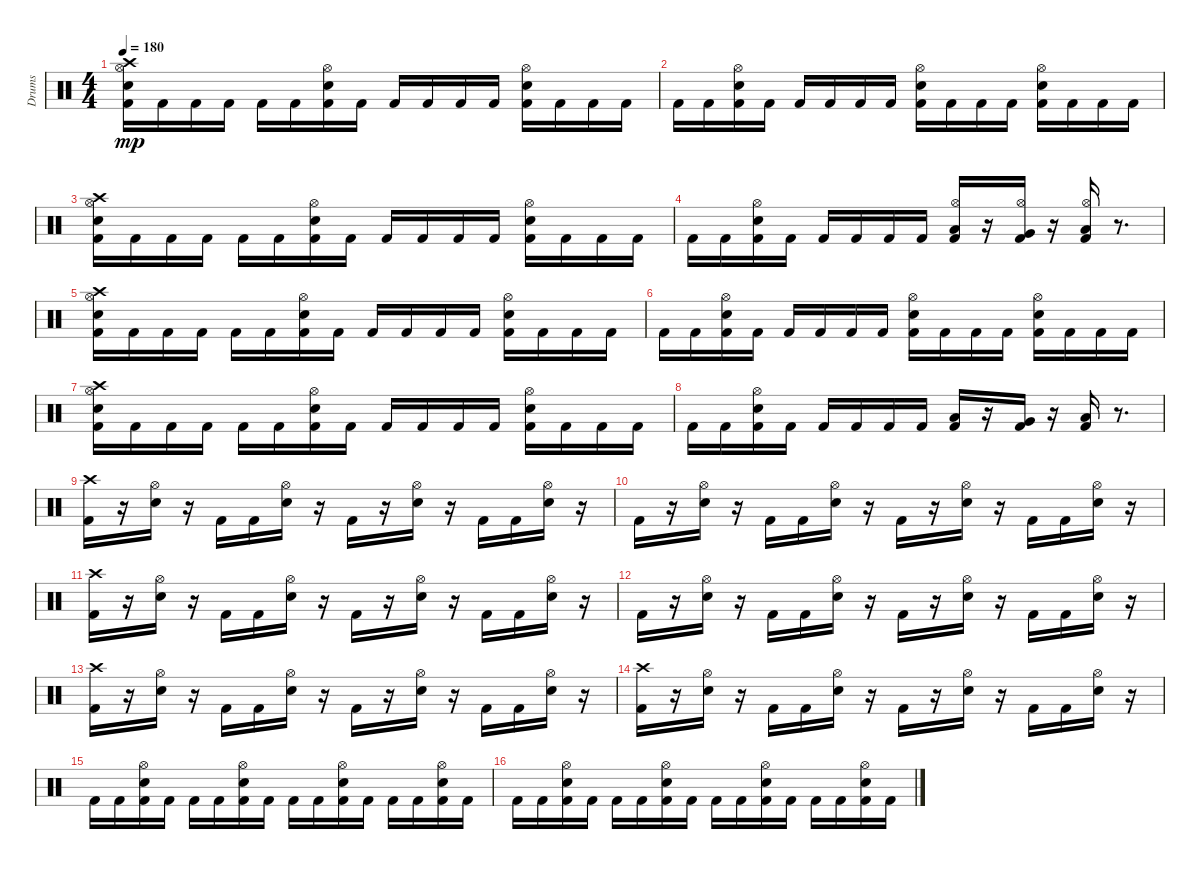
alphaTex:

\track ("Drums" "Drums") {instrument percussion}
\staff {score}
\articulation defaults
\ts (4 4)
\tempo 180
\clef neutral
\ks c
("Crash high (hit)" "Electric Snare (hit)" "Kick (hit) 2" "Hi-Hat (open)").16{dy mp} "Kick (hit) 2".16 "Kick (hit) 2".16 "Kick (hit) 2".16 "Kick (hit) 2".16 "Kick (hit) 2".16 ("Kick (hit) 2" "Hi-Hat (open)" "Electric Snare (hit)").16 "Kick (hit) 2".16 "Kick (hit) 2".16 "Kick (hit) 2".16 "Kick (hit) 2".16 "Kick (hit) 2".16 ("Kick (hit) 2" "Hi-Hat (open)" "Electric Snare (hit)").16 "Kick (hit) 2".16 "Kick (hit) 2".16 "Kick (hit) 2".16 |
"Kick (hit) 2".16 "Kick (hit) 2".16 ("Electric Snare (hit)" "Kick (hit) 2" "Hi-Hat (open)").16 "Kick (hit) 2".16 "Kick (hit) 2".16 "Kick (hit) 2".16 "Kick (hit) 2".16 "Kick (hit) 2".16 ("Electric Snare (hit)" "Kick (hit) 2" "Hi-Hat (open)").16 "Kick (hit) 2".16 "Kick (hit) 2".16 "Kick (hit) 2".16 ("Electric Snare (hit)" "Kick (hit) 2" "Hi-Hat (open)").16 "Kick (hit) 2".16 "Kick (hit) 2".16 "Kick (hit) 2".16 |
("Hi-Hat (open)" "Electric Snare (hit)" "Crash high (hit)" "Kick (hit) 2").16 "Kick (hit) 2".16 "Kick (hit) 2".16 "Kick (hit) 2".16 "Kick (hit) 2".16 "Kick (hit) 2".16 ("Kick (hit) 2" "Electric Snare (hit)" "Hi-Hat (open)").16 "Kick (hit) 2".16 "Kick (hit) 2".16 "Kick (hit) 2".16 "Kick (hit) 2".16 "Kick (hit) 2".16 ("Electric Snare (hit)" "Kick (hit) 2" "Hi-Hat (open)").16 "Kick (hit) 2".16 "Kick (hit) 2".16 "Kick (hit) 2".16 |
"Kick (hit) 2".16 "Kick (hit) 2".16 ("Kick (hit) 2" "Hi-Hat (open)" "Electric Snare (hit)").16 "Kick (hit) 2".16 "Kick (hit) 2".16 "Kick (hit) 2".16 "Kick (hit) 2".16 "Kick (hit) 2".16 ("Hi-Hat (open)" "Kick (hit) 2" "Low Tom (hit)").16 r.16 ("Hi-Hat (open)" "Kick (hit) 2" "Very Low Tom (hit)").16 r.16 ("Low Floor Tom (hit)" "Kick (hit) 2" "Hi-Hat (open)").16 r.8{d} |
("Kick (hit) 2" "Electric Snare (hit)" "Crash high (hit)" "Hi-Hat (open)").16 "Kick (hit) 2".16 "Kick (hit) 2".16 "Kick (hit) 2".16 "Kick (hit) 2".16 "Kick (hit) 2".16 ("Electric Snare (hit)" "Kick (hit) 2" "Hi-Hat (open)").16 "Kick (hit) 2".16 "Kick (hit) 2".16 "Kick (hit) 2".16 "Kick (hit) 2".16 "Kick (hit) 2".16 ("Electric Snare (hit)" "Hi-Hat (open)" "Kick (hit) 2").16 "Kick (hit) 2".16 "Kick (hit) 2".16 "Kick (hit) 2".16 |
"Kick (hit) 2".16 "Kick (hit) 2".16 ("Electric Snare (hit)" "Hi-Hat (open)" "Kick (hit) 2").16 "Kick (hit) 2".16 "Kick (hit) 2".16 "Kick (hit) 2".16 "Kick (hit) 2".16 "Kick (hit) 2".16 ("Electric Snare (hit)" "Hi-Hat (open)" "Kick (hit) 2").16 "Kick (hit) 2".16 "Kick (hit) 2".16 "Kick (hit) 2".16 ("Electric Snare (hit)" "Hi-Hat (open)" "Kick (hit) 2").16 "Kick (hit) 2".16 "Kick (hit) 2".16 "Kick (hit) 2".16 |
("Hi-Hat (open)" "Crash high (hit)" "Kick (hit) 2" "Electric Snare (hit)").16 "Kick (hit) 2".16 "Kick (hit) 2".16 "Kick (hit) 2".16 "Kick (hit) 2".16 "Kick (hit) 2".16 ("Electric Snare (hit)" "Kick (hit) 2" "Hi-Hat (open)").16 "Kick (hit) 2".16 "Kick (hit) 2".16 "Kick (hit) 2".16 "Kick (hit) 2".16 "Kick (hit) 2".16 ("Hi-Hat (open)" "Electric Snare (hit)" "Kick (hit) 2").16 "Kick (hit) 2".16 "Kick (hit) 2".16 "Kick (hit) 2".16 |
"Kick (hit) 2".16 "Kick (hit) 2".16 ("Kick (hit) 2" "Electric Snare (hit)" "Hi-Hat (open)").16 "Kick (hit) 2".16 "Kick (hit) 2".16 "Kick (hit) 2".16 "Kick (hit) 2".16 "Kick (hit) 2".16 ("Low Tom (hit)" "Kick (hit) 2").16 r.16 ("Very Low Tom (hit)" "Kick (hit) 2").16 r.16 ("Low Floor Tom (hit)" "Kick (hit) 2").16 r.8{d} |
("Crash high (hit)" "Kick (hit) 2").16 r.16 ("Electric Snare (hit)" "Hi-Hat (open)").16 r.16 "Kick (hit) 2".16 "Kick (hit) 2".16 ("Electric Snare (hit)" "Hi-Hat (open)").16 r.16 "Kick (hit) 2".16 r.16 ("Electric Snare (hit)" "Hi-Hat (open)").16 r.16 "Kick (hit) 2".16 "Kick (hit) 2".16 ("Electric Snare (hit)" "Hi-Hat (open)").16 r.16 |
"Kick (hit) 2".16 r.16 ("Electric Snare (hit)" "Hi-Hat (open)").16 r.16 "Kick (hit) 2".16 "Kick (hit) 2".16 ("Hi-Hat (open)" "Electric Snare (hit)").16 r.16 "Kick (hit) 2".16 r.16 ("Electric Snare (hit)" "Hi-Hat (open)").16 r.16 "Kick (hit) 2".16 "Kick (hit) 2".16 ("Hi-Hat (open)" "Electric Snare (hit)").16 r.16 |
("Crash high (hit)" "Kick (hit) 2").16 r.16 ("Electric Snare (hit)" "Hi-Hat (open)").16 r.16 "Kick (hit) 2".16 "Kick (hit) 2".16 ("Electric Snare (hit)" "Hi-Hat (open)").16 r.16 "Kick (hit) 2".16 r.16 ("Hi-Hat (open)" "Electric Snare (hit)").16 r.16 "Kick (hit) 2".16 "Kick (hit) 2".16 ("Electric Snare (hit)" "Hi-Hat (open)").16 r.16 |
"Kick (hit) 2".16 r.16 ("Hi-Hat (open)" "Electric Snare (hit)").16 r.16 "Kick (hit) 2".16 "Kick (hit) 2".16 ("Electric Snare (hit)" "Hi-Hat (open)").16 r.16 "Kick (hit) 2".16 r.16 ("Hi-Hat (open)" "Electric Snare (hit)").16 r.16 "Kick (hit) 2".16 "Kick (hit) 2".16 ("Electric Snare (hit)" "Hi-Hat (open)").16 r.16 |
("Kick (hit) 2" "Crash high (hit)").16 r.16 ("Electric Snare (hit)" "Hi-Hat (open)").16 r.16 "Kick (hit) 2".16 "Kick (hit) 2".16 ("Electric Snare (hit)" "Hi-Hat (open)").16 r.16 "Kick (hit) 2".16 r.16 ("Hi-Hat (open)" "Electric Snare (hit)").16 r.16 "Kick (hit) 2".16 "Kick (hit) 2".16 ("Electric Snare (hit)" "Hi-Hat (open)").16 r.16 |
("Kick (hit) 2" "Crash high (hit)").16 r.16 ("Hi-Hat (open)" "Electric Snare (hit)").16 r.16 "Kick (hit) 2".16 "Kick (hit) 2".16 ("Hi-Hat (open)" "Electric Snare (hit)").16 r.16 "Kick (hit) 2".16 r.16 ("Hi-Hat (open)" "Electric Snare (hit)").16 r.16 "Kick (hit) 2".16 "Kick (hit) 2".16 ("Electric Snare (hit)" "Hi-Hat (open)").16 r.16 |
"Kick (hit) 2".16 "Kick (hit) 2".16 ("Kick (hit) 2" "Electric Snare (hit)" "Hi-Hat (open)").16 "Kick (hit) 2".16 "Kick (hit) 2".16 "Kick (hit) 2".16 ("Hi-Hat (open)" "Kick (hit) 2" "Electric Snare (hit)").16 "Kick (hit) 2".16 "Kick (hit) 2".16 "Kick (hit) 2".16 ("Kick (hit) 2" "Hi-Hat (open)" "Electric Snare (hit)").16 "Kick (hit) 2".16 "Kick (hit) 2".16 "Kick (hit) 2".16 ("Hi-Hat (open)" "Kick (hit) 2" "Electric Snare (hit)").16 "Kick (hit) 2".16 |
"Kick (hit) 2".16 "Kick (hit) 2".16 ("Kick (hit) 2" "Hi-Hat (open)" "Electric Snare (hit)").16 "Kick (hit) 2".16 "Kick (hit) 2".16 "Kick (hit) 2".16 ("Kick (hit) 2" "Hi-Hat (open)" "Electric Snare (hit)").16 "Kick (hit) 2".16 "Kick (hit) 2".16 "Kick (hit) 2".16 ("Kick (hit) 2" "Hi-Hat (open)" "Electric Snare (hit)").16 "Kick (hit) 2".16 "Kick (hit) 2".16 "Kick (hit) 2".16 ("Kick (hit) 2" "Hi-Hat (open)" "Electric Snare (hit)").16 "Kick (hit) 2".16
